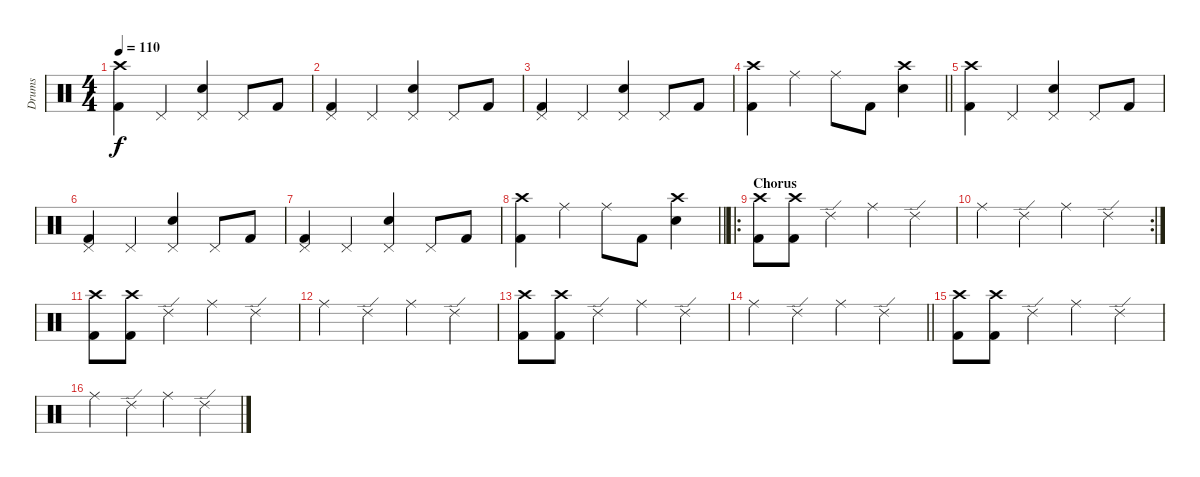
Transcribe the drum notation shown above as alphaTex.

\track ("Drums" "Drums") {instrument percussion}
\staff {score}
\articulation defaults
\ts (4 4)
\section ("" "")
\tempo 110
\clef neutral
\ks c
("Crash high (hit)" "Kick (hit) 2").4{dy f} "Pedal Hi-Hat (hit)".4 ("Pedal Hi-Hat (hit)" "Snare (hit) 2").4 "Pedal Hi-Hat (hit)".8 "Kick (hit) 2".8 |
("Pedal Hi-Hat (hit)" "Kick (hit) 2").4 "Pedal Hi-Hat (hit)".4 ("Pedal Hi-Hat (hit)" "Snare (hit) 2").4 "Pedal Hi-Hat (hit)".8 "Kick (hit) 2".8 |
("Pedal Hi-Hat (hit)" "Kick (hit) 2").4 "Pedal Hi-Hat (hit)".4 ("Pedal Hi-Hat (hit)" "Snare (hit) 2").4 "Pedal Hi-Hat (hit)".8 "Kick (hit) 2".8 |
\barLineRight lightlight
("Crash high (hit)" "Kick (hit) 2").4 "Ride (middle)".4 "Ride (middle)".8 "Kick (hit) 2".8 ("Crash high (hit)" "Snare (hit) 2").4 |
\section ("" "")
("Crash high (hit)" "Kick (hit) 2").4 "Pedal Hi-Hat (hit)".4 ("Pedal Hi-Hat (hit)" "Snare (hit) 2").4 "Pedal Hi-Hat (hit)".8 "Kick (hit) 2".8 |
("Pedal Hi-Hat (hit)" "Kick (hit) 2").4 "Pedal Hi-Hat (hit)".4 ("Pedal Hi-Hat (hit)" "Snare (hit) 2").4 "Pedal Hi-Hat (hit)".8 "Kick (hit) 2".8 |
("Pedal Hi-Hat (hit)" "Kick (hit) 2").4 "Pedal Hi-Hat (hit)".4 ("Pedal Hi-Hat (hit)" "Snare (hit) 2").4 "Pedal Hi-Hat (hit)".8 "Kick (hit) 2".8 |
\barLineRight lightlight
("Crash high (hit)" "Kick (hit) 2").4 "Ride (middle)".4 "Ride (middle)".8 "Kick (hit) 2".8 ("Crash high (hit)" "Snare (hit) 2").4 |
\ro
\section ("" "Chorus")
("Crash high (hit)" "Kick (hit) 2").8 ("Crash high (hit)" "Kick (hit) 2").8 "Ride (edge) 2".4 "Ride (middle)".4 "Ride (edge) 2".4 |
\rc 2 "Ride (middle)".4 "Ride (edge) 2".4 "Ride (middle)".4 "Ride (edge) 2".4
|
("Crash high (hit)" "Kick (hit) 2").8 ("Crash high (hit)" "Kick (hit) 2").8 "Ride (edge) 2".4 "Ride (middle)".4 "Ride (edge) 2".4 |
"Ride (middle)".4 "Ride (edge) 2".4 "Ride (middle)".4 "Ride (edge) 2".4 |
("Crash high (hit)" "Kick (hit) 2").8 ("Crash high (hit)" "Kick (hit) 2").8 "Ride (edge) 2".4 "Ride (middle)".4 "Ride (edge) 2".4 |
\barLineRight lightlight "Ride (middle)".4 "Ride (edge) 2".4 "Ride (middle)".4 "Ride (edge) 2".4
|
\section ("" "")
("Crash high (hit)" "Kick (hit) 2").8 ("Crash high (hit)" "Kick (hit) 2").8 "Ride (edge) 2".4 "Ride (middle)".4 "Ride (edge) 2".4 |
"Ride (middle)".4 "Ride (edge) 2".4 "Ride (middle)".4 "Ride (edge) 2".4
